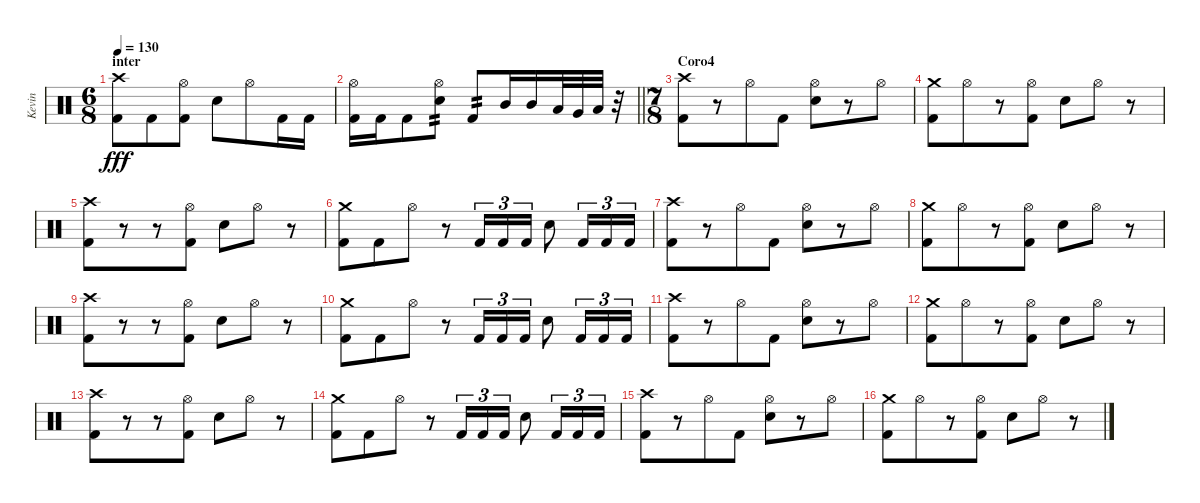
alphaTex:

\track ("Kevin" "Kevin") {instrument percussion}
\staff {score}
\articulation defaults
\ts (6 8)
\section ("" "inter")
\tempo 130
\clef neutral
\ks c
("Crash high (hit)" "Kick (hit) 2").8{dy fff} "Kick (hit) 2".8 ("Hi-Hat (open)" "Kick (hit) 2").8 "Snare (hit) 2".8 "Hi-Hat (open)".8 "Kick (hit) 2".16 "Kick (hit) 2".16 |
\barLineRight lightlight
("Hi-Hat (open)" "Kick (hit) 2").16 "Kick (hit) 2".16 "Kick (hit) 2".8 ("Hi-Hat (open)" "Snare (hit) 2").8{tp 2} "Kick (hit) 2".8{tp 2} "Mid Tom (hit)".16 "Mid Tom (hit)".16 "Low Tom (hit)".32 "Very Low Tom (hit)".32 "Low Floor Tom (hit)".32 r.32 |
\ts (7 8)
\section ("" "Coro4")
("Crash high (hit)" "Kick (hit) 2").8 r.8 "Hi-Hat (open)".8 "Kick (hit) 2".8 ("Hi-Hat (open)" "Snare (hit) 2").8 r.8 "Hi-Hat (open)".8 |
("Crash medium (hit)" "Kick (hit) 2").8 "Hi-Hat (open)".8 r.8 ("Hi-Hat (open)" "Kick (hit) 2").8 "Snare (hit) 2".8 "Hi-Hat (open)".8 r.8 |
("Crash high (hit)" "Kick (hit) 2").8 r.8 r.8 ("Hi-Hat (open)" "Kick (hit) 2").8 "Snare (hit) 2".8 "Hi-Hat (open)".8 r.8 |
("Crash medium (hit)" "Kick (hit) 2").8 "Kick (hit) 2".8 "Hi-Hat (open)".8 r.8 "Kick (hit) 2".16{tu (3 2)} "Kick (hit) 2".16{tu (3 2)} "Kick (hit) 2".16{tu (3 2)} "Snare (hit) 2".8 "Kick (hit) 2".16{tu (3 2)} "Kick (hit) 2".16{tu (3 2)} "Kick (hit) 2".16{tu (3 2)} |
("Crash high (hit)" "Kick (hit) 2").8 r.8 "Hi-Hat (open)".8 "Kick (hit) 2".8 ("Hi-Hat (open)" "Snare (hit) 2").8 r.8 "Hi-Hat (open)".8 |
("Crash medium (hit)" "Kick (hit) 2").8 "Hi-Hat (open)".8 r.8 ("Hi-Hat (open)" "Kick (hit) 2").8 "Snare (hit) 2".8 "Hi-Hat (open)".8 r.8 |
("Crash high (hit)" "Kick (hit) 2").8 r.8 r.8 ("Hi-Hat (open)" "Kick (hit) 2").8 "Snare (hit) 2".8 "Hi-Hat (open)".8 r.8 |
("Crash medium (hit)" "Kick (hit) 2").8 "Kick (hit) 2".8 "Hi-Hat (open)".8 r.8 "Kick (hit) 2".16{tu (3 2)} "Kick (hit) 2".16{tu (3 2)} "Kick (hit) 2".16{tu (3 2)} "Snare (hit) 2".8 "Kick (hit) 2".16{tu (3 2)} "Kick (hit) 2".16{tu (3 2)} "Kick (hit) 2".16{tu (3 2)} |
("Crash high (hit)" "Kick (hit) 2").8 r.8 "Hi-Hat (open)".8 "Kick (hit) 2".8 ("Hi-Hat (open)" "Snare (hit) 2").8 r.8 "Hi-Hat (open)".8 |
("Crash medium (hit)" "Kick (hit) 2").8 "Hi-Hat (open)".8 r.8 ("Hi-Hat (open)" "Kick (hit) 2").8 "Snare (hit) 2".8 "Hi-Hat (open)".8 r.8 |
("Crash high (hit)" "Kick (hit) 2").8 r.8 r.8 ("Hi-Hat (open)" "Kick (hit) 2").8 "Snare (hit) 2".8 "Hi-Hat (open)".8 r.8 |
("Crash medium (hit)" "Kick (hit) 2").8 "Kick (hit) 2".8 "Hi-Hat (open)".8 r.8 "Kick (hit) 2".16{tu (3 2)} "Kick (hit) 2".16{tu (3 2)} "Kick (hit) 2".16{tu (3 2)} "Snare (hit) 2".8 "Kick (hit) 2".16{tu (3 2)} "Kick (hit) 2".16{tu (3 2)} "Kick (hit) 2".16{tu (3 2)} |
("Crash high (hit)" "Kick (hit) 2").8 r.8 "Hi-Hat (open)".8 "Kick (hit) 2".8 ("Hi-Hat (open)" "Snare (hit) 2").8 r.8 "Hi-Hat (open)".8 |
("Crash medium (hit)" "Kick (hit) 2").8 "Hi-Hat (open)".8 r.8 ("Hi-Hat (open)" "Kick (hit) 2").8 "Snare (hit) 2".8 "Hi-Hat (open)".8 r.8
